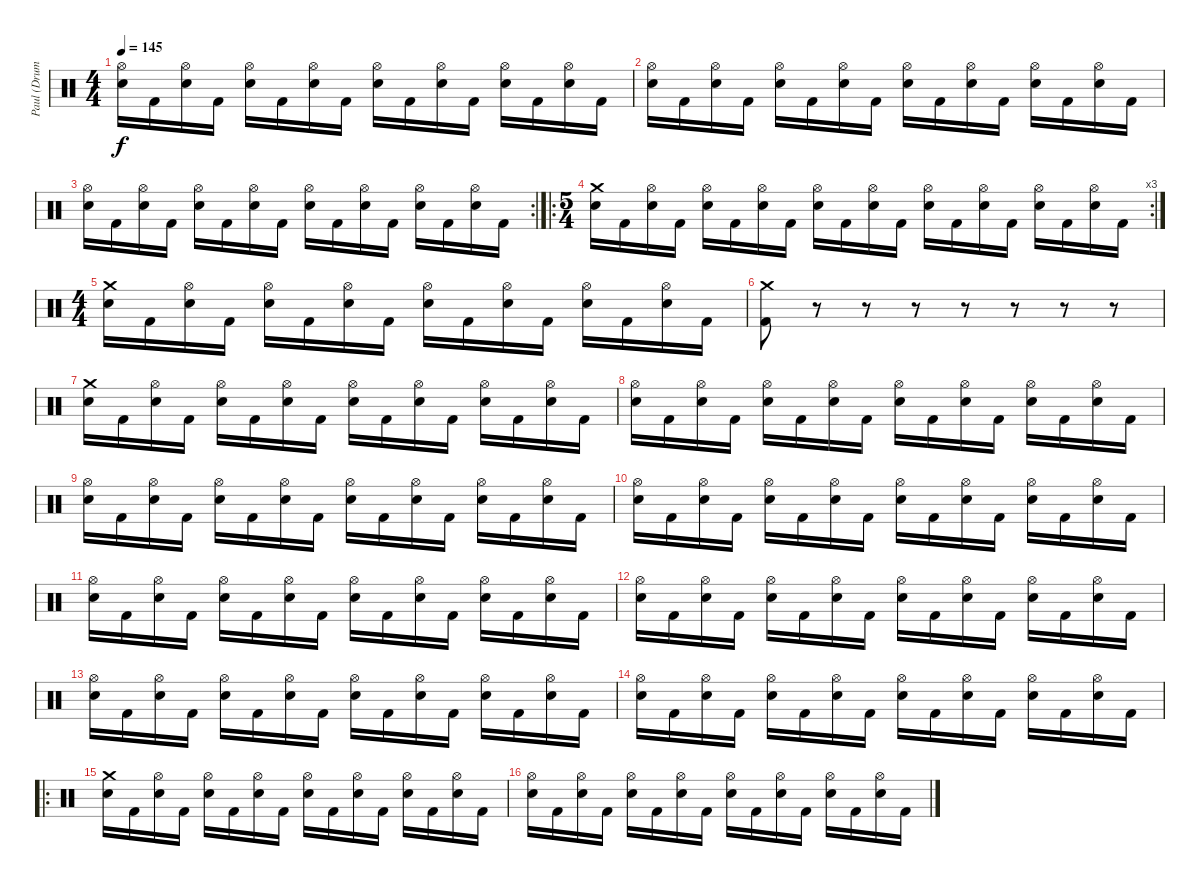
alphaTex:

\track ("Paul (Drums)" "Paul (Drum") {instrument percussion}
\staff {score}
\articulation defaults
\ts (4 4)
\tempo 145
\clef neutral
\ks c
("Hi-Hat (open)" "Electric Snare (hit)").16{dy f} "Kick (hit) 2".16 ("Hi-Hat (open)" "Electric Snare (hit)").16 "Kick (hit) 2".16 ("Hi-Hat (open)" "Electric Snare (hit)").16 "Kick (hit) 2".16 ("Hi-Hat (open)" "Electric Snare (hit)").16 "Kick (hit) 2".16 ("Hi-Hat (open)" "Electric Snare (hit)").16 "Kick (hit) 2".16 ("Hi-Hat (open)" "Electric Snare (hit)").16 "Kick (hit) 2".16 ("Hi-Hat (open)" "Electric Snare (hit)").16 "Kick (hit) 2".16 ("Hi-Hat (open)" "Electric Snare (hit)").16 "Kick (hit) 2".16 |
("Hi-Hat (open)" "Electric Snare (hit)").16 "Kick (hit) 2".16 ("Hi-Hat (open)" "Electric Snare (hit)").16 "Kick (hit) 2".16 ("Hi-Hat (open)" "Electric Snare (hit)").16 "Kick (hit) 2".16 ("Hi-Hat (open)" "Electric Snare (hit)").16 "Kick (hit) 2".16 ("Hi-Hat (open)" "Electric Snare (hit)").16 "Kick (hit) 2".16 ("Hi-Hat (open)" "Electric Snare (hit)").16 "Kick (hit) 2".16 ("Hi-Hat (open)" "Electric Snare (hit)").16 "Kick (hit) 2".16 ("Hi-Hat (open)" "Electric Snare (hit)").16 "Kick (hit) 2".16 |
\rc 2
("Hi-Hat (open)" "Electric Snare (hit)").16 "Kick (hit) 2".16 ("Hi-Hat (open)" "Electric Snare (hit)").16 "Kick (hit) 2".16 ("Hi-Hat (open)" "Electric Snare (hit)").16 "Kick (hit) 2".16 ("Hi-Hat (open)" "Electric Snare (hit)").16 "Kick (hit) 2".16 ("Hi-Hat (open)" "Electric Snare (hit)").16 "Kick (hit) 2".16 ("Hi-Hat (open)" "Electric Snare (hit)").16 "Kick (hit) 2".16 ("Hi-Hat (open)" "Electric Snare (hit)").16 "Kick (hit) 2".16 ("Hi-Hat (open)" "Electric Snare (hit)").16 "Kick (hit) 2".16 |
\ro
\rc 3
\ts (5 4)
("Crash medium (hit)" "Electric Snare (hit)").16 "Kick (hit) 2".16 ("Hi-Hat (open)" "Electric Snare (hit)").16 "Kick (hit) 2".16 ("Hi-Hat (open)" "Electric Snare (hit)").16 "Kick (hit) 2".16 ("Hi-Hat (open)" "Electric Snare (hit)").16 "Kick (hit) 2".16 ("Hi-Hat (open)" "Electric Snare (hit)").16 "Kick (hit) 2".16 ("Hi-Hat (open)" "Electric Snare (hit)").16 "Kick (hit) 2".16 ("Hi-Hat (open)" "Electric Snare (hit)").16 "Kick (hit) 2".16 ("Hi-Hat (open)" "Electric Snare (hit)").16 "Kick (hit) 2".16 ("Hi-Hat (open)" "Electric Snare (hit)").16 "Kick (hit) 2".16 ("Hi-Hat (open)" "Electric Snare (hit)").16 "Kick (hit) 2".16 |
\ts (4 4)
("Crash medium (hit)" "Electric Snare (hit)").16 "Kick (hit) 2".16 ("Hi-Hat (open)" "Electric Snare (hit)").16 "Kick (hit) 2".16 ("Hi-Hat (open)" "Electric Snare (hit)").16 "Kick (hit) 2".16 ("Hi-Hat (open)" "Electric Snare (hit)").16 "Kick (hit) 2".16 ("Hi-Hat (open)" "Electric Snare (hit)").16 "Kick (hit) 2".16 ("Hi-Hat (open)" "Electric Snare (hit)").16 "Kick (hit) 2".16 ("Hi-Hat (open)" "Electric Snare (hit)").16 "Kick (hit) 2".16 ("Hi-Hat (open)" "Electric Snare (hit)").16 "Kick (hit) 2".16 |
("Crash medium (hit)" "Kick (hit) 2").8 r.8 r.8 r.8 r.8 r.8 r.8 r.8 |
("Crash medium (hit)" "Electric Snare (hit)").16 "Kick (hit) 2".16 ("Hi-Hat (open)" "Electric Snare (hit)").16 "Kick (hit) 2".16 ("Hi-Hat (open)" "Electric Snare (hit)").16 "Kick (hit) 2".16 ("Hi-Hat (open)" "Electric Snare (hit)").16 "Kick (hit) 2".16 ("Hi-Hat (open)" "Electric Snare (hit)").16 "Kick (hit) 2".16 ("Hi-Hat (open)" "Electric Snare (hit)").16 "Kick (hit) 2".16 ("Hi-Hat (open)" "Electric Snare (hit)").16 "Kick (hit) 2".16 ("Hi-Hat (open)" "Electric Snare (hit)").16 "Kick (hit) 2".16 |
("Hi-Hat (open)" "Electric Snare (hit)").16 "Kick (hit) 2".16 ("Hi-Hat (open)" "Electric Snare (hit)").16 "Kick (hit) 2".16 ("Hi-Hat (open)" "Electric Snare (hit)").16 "Kick (hit) 2".16 ("Hi-Hat (open)" "Electric Snare (hit)").16 "Kick (hit) 2".16 ("Hi-Hat (open)" "Electric Snare (hit)").16 "Kick (hit) 2".16 ("Hi-Hat (open)" "Electric Snare (hit)").16 "Kick (hit) 2".16 ("Hi-Hat (open)" "Electric Snare (hit)").16 "Kick (hit) 2".16 ("Hi-Hat (open)" "Electric Snare (hit)").16 "Kick (hit) 2".16 |
("Hi-Hat (open)" "Electric Snare (hit)").16 "Kick (hit) 2".16 ("Hi-Hat (open)" "Electric Snare (hit)").16 "Kick (hit) 2".16 ("Hi-Hat (open)" "Electric Snare (hit)").16 "Kick (hit) 2".16 ("Hi-Hat (open)" "Electric Snare (hit)").16 "Kick (hit) 2".16 ("Hi-Hat (open)" "Electric Snare (hit)").16 "Kick (hit) 2".16 ("Hi-Hat (open)" "Electric Snare (hit)").16 "Kick (hit) 2".16 ("Hi-Hat (open)" "Electric Snare (hit)").16 "Kick (hit) 2".16 ("Hi-Hat (open)" "Electric Snare (hit)").16 "Kick (hit) 2".16 |
("Hi-Hat (open)" "Electric Snare (hit)").16 "Kick (hit) 2".16 ("Hi-Hat (open)" "Electric Snare (hit)").16 "Kick (hit) 2".16 ("Hi-Hat (open)" "Electric Snare (hit)").16 "Kick (hit) 2".16 ("Hi-Hat (open)" "Electric Snare (hit)").16 "Kick (hit) 2".16 ("Hi-Hat (open)" "Electric Snare (hit)").16 "Kick (hit) 2".16 ("Hi-Hat (open)" "Electric Snare (hit)").16 "Kick (hit) 2".16 ("Hi-Hat (open)" "Electric Snare (hit)").16 "Kick (hit) 2".16 ("Hi-Hat (open)" "Electric Snare (hit)").16 "Kick (hit) 2".16 |
("Hi-Hat (open)" "Electric Snare (hit)").16 "Kick (hit) 2".16 ("Hi-Hat (open)" "Electric Snare (hit)").16 "Kick (hit) 2".16 ("Hi-Hat (open)" "Electric Snare (hit)").16 "Kick (hit) 2".16 ("Hi-Hat (open)" "Electric Snare (hit)").16 "Kick (hit) 2".16 ("Hi-Hat (open)" "Electric Snare (hit)").16 "Kick (hit) 2".16 ("Hi-Hat (open)" "Electric Snare (hit)").16 "Kick (hit) 2".16 ("Hi-Hat (open)" "Electric Snare (hit)").16 "Kick (hit) 2".16 ("Hi-Hat (open)" "Electric Snare (hit)").16 "Kick (hit) 2".16 |
("Hi-Hat (open)" "Electric Snare (hit)").16 "Kick (hit) 2".16 ("Hi-Hat (open)" "Electric Snare (hit)").16 "Kick (hit) 2".16 ("Hi-Hat (open)" "Electric Snare (hit)").16 "Kick (hit) 2".16 ("Hi-Hat (open)" "Electric Snare (hit)").16 "Kick (hit) 2".16 ("Hi-Hat (open)" "Electric Snare (hit)").16 "Kick (hit) 2".16 ("Hi-Hat (open)" "Electric Snare (hit)").16 "Kick (hit) 2".16 ("Hi-Hat (open)" "Electric Snare (hit)").16 "Kick (hit) 2".16 ("Hi-Hat (open)" "Electric Snare (hit)").16 "Kick (hit) 2".16 |
("Hi-Hat (open)" "Electric Snare (hit)").16 "Kick (hit) 2".16 ("Hi-Hat (open)" "Electric Snare (hit)").16 "Kick (hit) 2".16 ("Hi-Hat (open)" "Electric Snare (hit)").16 "Kick (hit) 2".16 ("Hi-Hat (open)" "Electric Snare (hit)").16 "Kick (hit) 2".16 ("Hi-Hat (open)" "Electric Snare (hit)").16 "Kick (hit) 2".16 ("Hi-Hat (open)" "Electric Snare (hit)").16 "Kick (hit) 2".16 ("Hi-Hat (open)" "Electric Snare (hit)").16 "Kick (hit) 2".16 ("Hi-Hat (open)" "Electric Snare (hit)").16 "Kick (hit) 2".16 |
("Hi-Hat (open)" "Electric Snare (hit)").16 "Kick (hit) 2".16 ("Hi-Hat (open)" "Electric Snare (hit)").16 "Kick (hit) 2".16 ("Hi-Hat (open)" "Electric Snare (hit)").16 "Kick (hit) 2".16 ("Hi-Hat (open)" "Electric Snare (hit)").16 "Kick (hit) 2".16 ("Hi-Hat (open)" "Electric Snare (hit)").16 "Kick (hit) 2".16 ("Hi-Hat (open)" "Electric Snare (hit)").16 "Kick (hit) 2".16 ("Hi-Hat (open)" "Electric Snare (hit)").16 "Kick (hit) 2".16 ("Hi-Hat (open)" "Electric Snare (hit)").16 "Kick (hit) 2".16 |
\ro
("Crash medium (hit)" "Electric Snare (hit)").16 "Kick (hit) 2".16 ("Hi-Hat (open)" "Electric Snare (hit)").16 "Kick (hit) 2".16 ("Hi-Hat (open)" "Electric Snare (hit)").16 "Kick (hit) 2".16 ("Hi-Hat (open)" "Electric Snare (hit)").16 "Kick (hit) 2".16 ("Hi-Hat (open)" "Electric Snare (hit)").16 "Kick (hit) 2".16 ("Hi-Hat (open)" "Electric Snare (hit)").16 "Kick (hit) 2".16 ("Hi-Hat (open)" "Electric Snare (hit)").16 "Kick (hit) 2".16 ("Hi-Hat (open)" "Electric Snare (hit)").16 "Kick (hit) 2".16 |
("Hi-Hat (open)" "Electric Snare (hit)").16 "Kick (hit) 2".16 ("Hi-Hat (open)" "Electric Snare (hit)").16 "Kick (hit) 2".16 ("Hi-Hat (open)" "Electric Snare (hit)").16 "Kick (hit) 2".16 ("Hi-Hat (open)" "Electric Snare (hit)").16 "Kick (hit) 2".16 ("Hi-Hat (open)" "Electric Snare (hit)").16 "Kick (hit) 2".16 ("Hi-Hat (open)" "Electric Snare (hit)").16 "Kick (hit) 2".16 ("Hi-Hat (open)" "Electric Snare (hit)").16 "Kick (hit) 2".16 ("Hi-Hat (open)" "Electric Snare (hit)").16 "Kick (hit) 2".16
